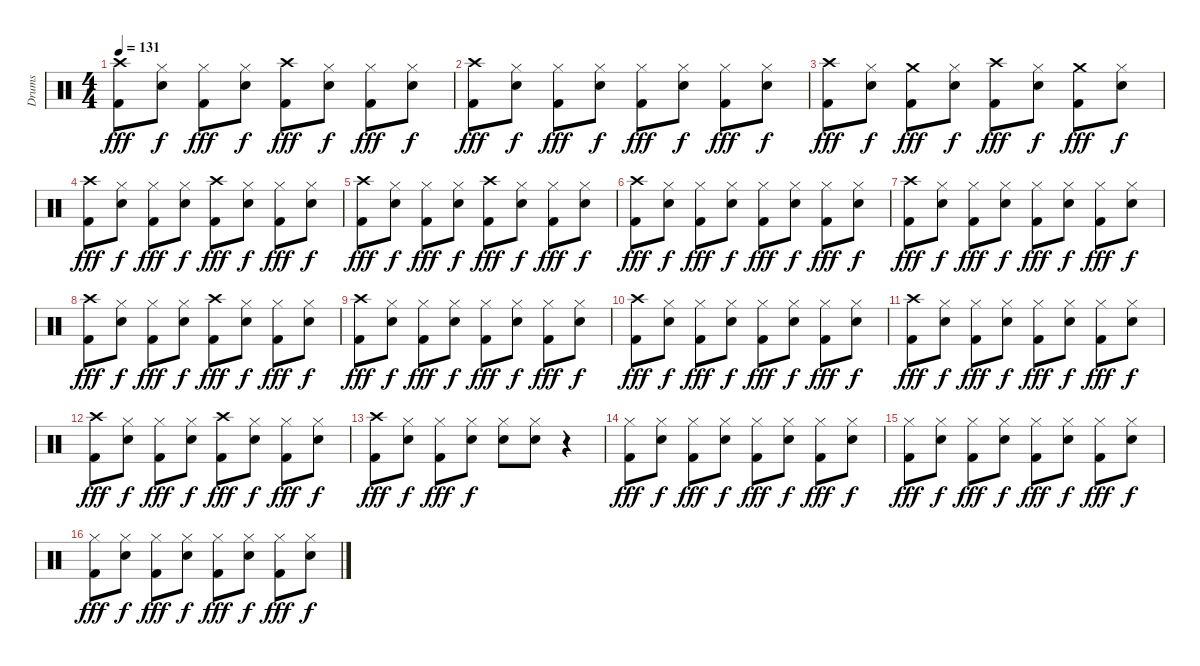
\track ("Drums" "Drums") {instrument percussion}
\staff {score}
\articulation defaults
\ts (4 4)
\tempo 131
\clef neutral
\ks c
("Crash high (hit)" "Kick (hit) 2").8{dy fff} ("Hi-Hat (closed)" "Electric Snare (hit)").8{dy f} ("Hi-Hat (closed)" "Kick (hit) 2").8{dy fff} ("Hi-Hat (closed)" "Electric Snare (hit)").8{dy f} ("Crash high (hit)" "Kick (hit) 2").8{dy fff} ("Hi-Hat (closed)" "Electric Snare (hit)").8{dy f} ("Hi-Hat (closed)" "Kick (hit) 2").8{dy fff} ("Hi-Hat (closed)" "Electric Snare (hit)").8{dy f} |
("Crash high (hit)" "Kick (hit) 2").8{dy fff} ("Hi-Hat (closed)" "Electric Snare (hit)").8{dy f} ("Hi-Hat (closed)" "Kick (hit) 2").8{dy fff} ("Hi-Hat (closed)" "Electric Snare (hit)").8{dy f} ("Hi-Hat (closed)" "Kick (hit) 2").8{dy fff} ("Hi-Hat (closed)" "Electric Snare (hit)").8{dy f} ("Hi-Hat (closed)" "Kick (hit) 2").8{dy fff} ("Hi-Hat (closed)" "Electric Snare (hit)").8{dy f} |
("Crash high (hit)" "Kick (hit) 2").8{dy fff} ("Hi-Hat (closed)" "Electric Snare (hit)").8{dy f} ("Crash medium (hit)" "Kick (hit) 2").8{dy fff} ("Hi-Hat (closed)" "Electric Snare (hit)").8{dy f} ("Crash high (hit)" "Kick (hit) 2").8{dy fff} ("Hi-Hat (closed)" "Electric Snare (hit)").8{dy f} ("Crash medium (hit)" "Kick (hit) 2").8{dy fff} ("Hi-Hat (closed)" "Electric Snare (hit)").8{dy f} |
("Crash high (hit)" "Kick (hit) 2").8{dy fff} ("Hi-Hat (closed)" "Electric Snare (hit)").8{dy f} ("Hi-Hat (closed)" "Kick (hit) 2").8{dy fff} ("Hi-Hat (closed)" "Electric Snare (hit)").8{dy f} ("Crash high (hit)" "Kick (hit) 2").8{dy fff} ("Hi-Hat (closed)" "Electric Snare (hit)").8{dy f} ("Hi-Hat (closed)" "Kick (hit) 2").8{dy fff} ("Hi-Hat (closed)" "Electric Snare (hit)").8{dy f} |
("Crash high (hit)" "Kick (hit) 2").8{dy fff} ("Hi-Hat (closed)" "Electric Snare (hit)").8{dy f} ("Hi-Hat (closed)" "Kick (hit) 2").8{dy fff} ("Hi-Hat (closed)" "Electric Snare (hit)").8{dy f} ("Crash high (hit)" "Kick (hit) 2").8{dy fff} ("Hi-Hat (closed)" "Electric Snare (hit)").8{dy f} ("Hi-Hat (closed)" "Kick (hit) 2").8{dy fff} ("Hi-Hat (closed)" "Electric Snare (hit)").8{dy f} |
("Crash high (hit)" "Kick (hit) 2").8{dy fff} ("Hi-Hat (closed)" "Electric Snare (hit)").8{dy f} ("Hi-Hat (closed)" "Kick (hit) 2").8{dy fff} ("Hi-Hat (closed)" "Electric Snare (hit)").8{dy f} ("Hi-Hat (closed)" "Kick (hit) 2").8{dy fff} ("Hi-Hat (closed)" "Electric Snare (hit)").8{dy f} ("Hi-Hat (closed)" "Kick (hit) 2").8{dy fff} ("Hi-Hat (closed)" "Electric Snare (hit)").8{dy f} |
("Crash high (hit)" "Kick (hit) 2").8{dy fff} ("Hi-Hat (closed)" "Electric Snare (hit)").8{dy f} ("Hi-Hat (closed)" "Kick (hit) 2").8{dy fff} ("Hi-Hat (closed)" "Electric Snare (hit)").8{dy f} ("Hi-Hat (closed)" "Kick (hit) 2").8{dy fff} ("Hi-Hat (closed)" "Electric Snare (hit)").8{dy f} ("Hi-Hat (closed)" "Kick (hit) 2").8{dy fff} ("Hi-Hat (closed)" "Electric Snare (hit)").8{dy f} |
("Crash high (hit)" "Kick (hit) 2").8{dy fff} ("Hi-Hat (closed)" "Electric Snare (hit)").8{dy f} ("Hi-Hat (closed)" "Kick (hit) 2").8{dy fff} ("Hi-Hat (closed)" "Electric Snare (hit)").8{dy f} ("Crash high (hit)" "Kick (hit) 2").8{dy fff} ("Hi-Hat (closed)" "Electric Snare (hit)").8{dy f} ("Hi-Hat (closed)" "Kick (hit) 2").8{dy fff} ("Hi-Hat (closed)" "Electric Snare (hit)").8{dy f} |
("Crash high (hit)" "Kick (hit) 2").8{dy fff} ("Hi-Hat (closed)" "Electric Snare (hit)").8{dy f} ("Hi-Hat (closed)" "Kick (hit) 2").8{dy fff} ("Hi-Hat (closed)" "Electric Snare (hit)").8{dy f} ("Hi-Hat (closed)" "Kick (hit) 2").8{dy fff} ("Hi-Hat (closed)" "Electric Snare (hit)").8{dy f} ("Hi-Hat (closed)" "Kick (hit) 2").8{dy fff} ("Hi-Hat (closed)" "Electric Snare (hit)").8{dy f} |
("Crash high (hit)" "Kick (hit) 2").8{dy fff} ("Hi-Hat (closed)" "Electric Snare (hit)").8{dy f} ("Hi-Hat (closed)" "Kick (hit) 2").8{dy fff} ("Hi-Hat (closed)" "Electric Snare (hit)").8{dy f} ("Hi-Hat (closed)" "Kick (hit) 2").8{dy fff} ("Hi-Hat (closed)" "Electric Snare (hit)").8{dy f} ("Hi-Hat (closed)" "Kick (hit) 2").8{dy fff} ("Hi-Hat (closed)" "Electric Snare (hit)").8{dy f} |
("Crash high (hit)" "Kick (hit) 2").8{dy fff} ("Hi-Hat (closed)" "Electric Snare (hit)").8{dy f} ("Hi-Hat (closed)" "Kick (hit) 2").8{dy fff} ("Hi-Hat (closed)" "Electric Snare (hit)").8{dy f} ("Hi-Hat (closed)" "Kick (hit) 2").8{dy fff} ("Hi-Hat (closed)" "Electric Snare (hit)").8{dy f} ("Hi-Hat (closed)" "Kick (hit) 2").8{dy fff} ("Hi-Hat (closed)" "Electric Snare (hit)").8{dy f} |
("Crash high (hit)" "Kick (hit) 2").8{dy fff} ("Hi-Hat (closed)" "Electric Snare (hit)").8{dy f} ("Hi-Hat (closed)" "Kick (hit) 2").8{dy fff} ("Hi-Hat (closed)" "Electric Snare (hit)").8{dy f} ("Crash high (hit)" "Kick (hit) 2").8{dy fff} ("Hi-Hat (closed)" "Electric Snare (hit)").8{dy f} ("Hi-Hat (closed)" "Kick (hit) 2").8{dy fff} ("Hi-Hat (closed)" "Electric Snare (hit)").8{dy f} |
("Crash high (hit)" "Kick (hit) 2").8{dy fff} ("Hi-Hat (closed)" "Electric Snare (hit)").8{dy f} ("Hi-Hat (closed)" "Kick (hit) 2").8{dy fff} ("Hi-Hat (closed)" "Electric Snare (hit)").8{dy f} ("Hi-Hat (closed)" "Electric Snare (hit)").8 ("Hi-Hat (closed)" "Electric Snare (hit)").8 r.4 |
("Hi-Hat (closed)" "Kick (hit) 2").8{dy fff} ("Hi-Hat (closed)" "Electric Snare (hit)").8{dy f} ("Hi-Hat (closed)" "Kick (hit) 2").8{dy fff} ("Hi-Hat (closed)" "Electric Snare (hit)").8{dy f} ("Hi-Hat (closed)" "Kick (hit) 2").8{dy fff} ("Hi-Hat (closed)" "Electric Snare (hit)").8{dy f} ("Hi-Hat (closed)" "Kick (hit) 2").8{dy fff} ("Hi-Hat (closed)" "Electric Snare (hit)").8{dy f} |
("Hi-Hat (closed)" "Kick (hit) 2").8{dy fff} ("Hi-Hat (closed)" "Electric Snare (hit)").8{dy f} ("Hi-Hat (closed)" "Kick (hit) 2").8{dy fff} ("Hi-Hat (closed)" "Electric Snare (hit)").8{dy f} ("Hi-Hat (closed)" "Kick (hit) 2").8{dy fff} ("Hi-Hat (closed)" "Electric Snare (hit)").8{dy f} ("Hi-Hat (closed)" "Kick (hit) 2").8{dy fff} ("Hi-Hat (closed)" "Electric Snare (hit)").8{dy f} |
("Hi-Hat (closed)" "Kick (hit) 2").8{dy fff} ("Hi-Hat (closed)" "Electric Snare (hit)").8{dy f} ("Hi-Hat (closed)" "Kick (hit) 2").8{dy fff} ("Hi-Hat (closed)" "Electric Snare (hit)").8{dy f} ("Hi-Hat (closed)" "Kick (hit) 2").8{dy fff} ("Hi-Hat (closed)" "Electric Snare (hit)").8{dy f} ("Hi-Hat (closed)" "Kick (hit) 2").8{dy fff} ("Hi-Hat (closed)" "Electric Snare (hit)").8{dy f}
